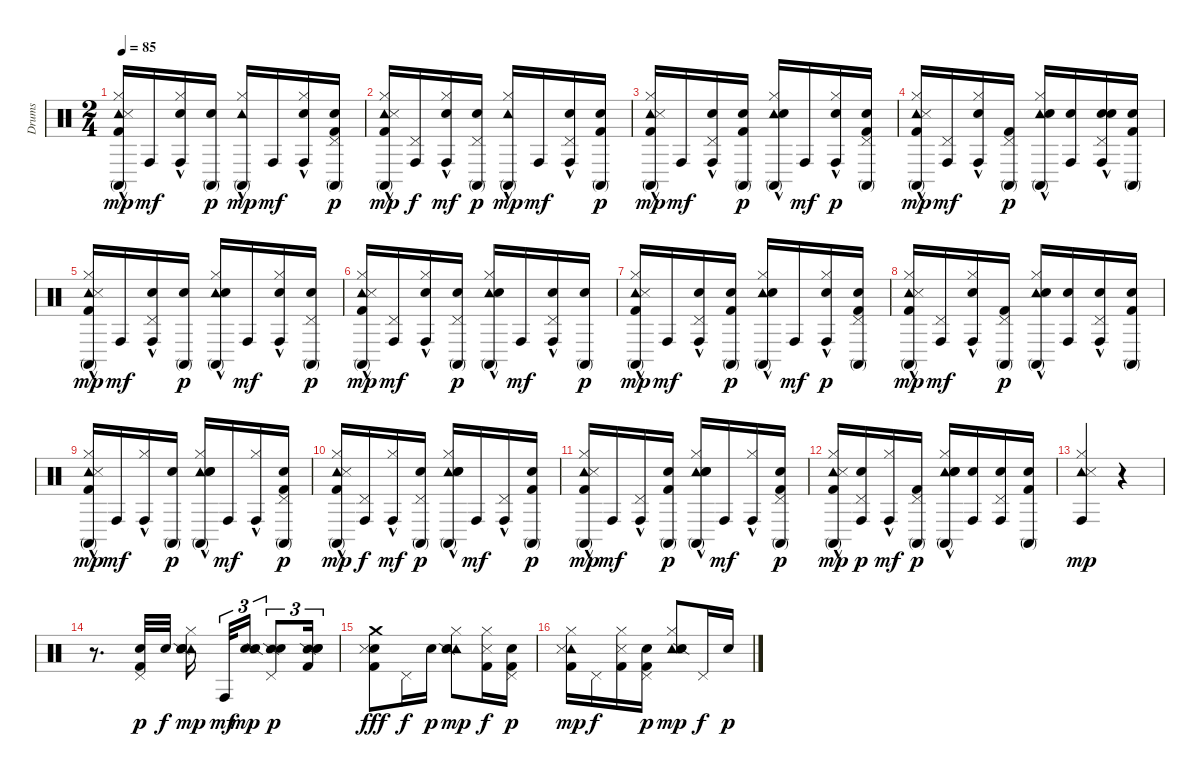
\track ("Drums" "Drums") {instrument percussion}
\staff {score}
\articulation defaults
\ts (2 4)
\tempo 85
\clef neutral
\ks c
("Conga high (mute)"{hac} "Tambourine (hit)" "Metronome (hit)" "Kick (hit) 2" "Hi-Hat (closed)").16{dy mp} "Conga high (hit)".16{dy mf} ("Conga high (hit)"{hac} "Hi-Hat (closed)" "Snare (hit) 2").16 ("Conga high (mute)" "Electric Snare (hit)").16{dy p} ("Conga high (mute)"{hac} "Tambourine (hit)" "Hi-Hat (closed)").16{dy mp} "Conga high (hit)".16{dy mf} ("Conga high (hit)"{hac} "Snare (hit) 2" "Hi-Hat (closed)").16 ("Conga high (mute)" "Kick (hit) 2" "Electric Snare (hit)" "Pedal Hi-Hat (hit)").16{dy p} |
("Conga high (mute)"{hac} "Tambourine (hit)" "Metronome (hit)" "Kick (hit) 2" "Hi-Hat (closed)").16{dy mp} ("Conga high (hit)" "Pedal Hi-Hat (hit)").16{dy f} ("Conga high (hit)"{hac} "Hi-Hat (closed)" "Snare (hit) 2").16{dy mf} ("Conga high (mute)" "Electric Snare (hit)" "Pedal Hi-Hat (hit)").16{dy p} ("Conga high (mute)"{hac} "Tambourine (hit)" "Hi-Hat (closed)").16{dy mp} "Conga high (hit)".16{dy mf} ("Conga high (hit)"{hac} "Snare (hit) 2" "Pedal Hi-Hat (hit)").16 ("Conga high (mute)" "Kick (hit) 2" "Electric Snare (hit)").16{dy p} |
("Conga high (mute)"{hac} "Tambourine (hit)" "Metronome (hit)" "Kick (hit) 2"{hac} "Hi-Hat (closed)").16{dy mp} "Conga high (hit)".16{dy mf} ("Conga high (hit)"{hac} "Pedal Hi-Hat (hit)" "Snare (hit) 2").16 ("Conga high (mute)" "Electric Snare (hit)" "Kick (hit) 2").16{dy p} ("Conga high (mute)"{hac} "Tambourine (hit)" "Metronome (bell)" "Hi-Hat (closed)").16 "Conga high (hit)".16{dy mf} ("Conga high (hit)"{hac} "Hi-Hat (closed)" "Snare (hit) 2").16{dy p} ("Conga high (mute)" "Electric Snare (hit)" "Kick (hit) 2" "Pedal Hi-Hat (hit)").16 |
("Conga high (mute)"{hac} "Tambourine (hit)" "Metronome (hit)" "Kick (hit) 2"{hac} "Hi-Hat (closed)").16{dy mp} ("Conga high (hit)" "Pedal Hi-Hat (hit)").16{dy mf} ("Conga high (hit)"{hac} "Hi-Hat (closed)" "Snare (hit) 2").16 ("Conga high (mute)" "Kick (hit) 2" "Pedal Hi-Hat (hit)").16{dy p} ("Conga high (mute)"{hac} "Tambourine (hit)" "Metronome (bell)" "Hi-Hat (closed)").16 ("Conga high (hit)" "Electric Snare (hit)").16 ("Conga high (hit)"{hac} "Snare (hit) 2" "Electric Snare (hit)" "Pedal Hi-Hat (hit)").16 ("Conga high (mute)" "Kick (hit) 2" "Electric Snare (hit)").16 |
("Conga high (mute)"{hac} "Tambourine (hit)" "Metronome (hit)" "Kick (hit) 2" "Hi-Hat (closed)").16{dy mp} "Conga high (hit)".16{dy mf} ("Conga high (hit)"{hac} "Pedal Hi-Hat (hit)" "Snare (hit) 2").16 ("Conga high (mute)" "Electric Snare (hit)").16{dy p} ("Conga high (mute)"{hac} "Tambourine (hit)" "Hi-Hat (closed)" "Metronome (bell)").16 "Conga high (hit)".16{dy mf} ("Conga high (hit)"{hac} "Snare (hit) 2" "Hi-Hat (closed)").16 ("Conga high (mute)" "Electric Snare (hit)" "Pedal Hi-Hat (hit)").16{dy p} |
("Conga high (mute)"{hac} "Tambourine (hit)" "Metronome (hit)" "Kick (hit) 2" "Hi-Hat (closed)").16{dy mp} ("Conga high (hit)" "Pedal Hi-Hat (hit)").16{dy mf} ("Conga high (hit)"{hac} "Hi-Hat (closed)" "Snare (hit) 2").16 ("Conga high (mute)" "Electric Snare (hit)" "Pedal Hi-Hat (hit)").16{dy p} ("Conga high (mute)"{hac} "Tambourine (hit)" "Metronome (bell)" "Hi-Hat (closed)").16 "Conga high (hit)".16{dy mf} ("Conga high (hit)"{hac} "Snare (hit) 2" "Pedal Hi-Hat (hit)").16 ("Conga high (mute)" "Electric Snare (hit)").16{dy p} |
("Conga high (mute)"{hac} "Tambourine (hit)" "Metronome (hit)" "Kick (hit) 2" "Hi-Hat (closed)").16{dy mp} "Conga high (hit)".16{dy mf} ("Conga high (hit)"{hac} "Pedal Hi-Hat (hit)" "Snare (hit) 2").16 ("Conga high (mute)" "Electric Snare (hit)" "Kick (hit) 2").16{dy p} ("Conga high (mute)"{hac} "Tambourine (hit)" "Metronome (bell)" "Hi-Hat (closed)").16 "Conga high (hit)".16{dy mf} ("Conga high (hit)"{hac} "Hi-Hat (closed)" "Snare (hit) 2").16{dy p} ("Conga high (mute)" "Electric Snare (hit)" "Kick (hit) 2" "Pedal Hi-Hat (hit)").16 |
("Conga high (mute)"{hac} "Tambourine (hit)" "Metronome (hit)" "Kick (hit) 2"{hac} "Hi-Hat (closed)").16{dy mp} ("Conga high (hit)" "Pedal Hi-Hat (hit)").16{dy mf} ("Conga high (hit)"{hac} "Hi-Hat (closed)" "Snare (hit) 2").16 ("Conga high (mute)" "Kick (hit) 2" "Pedal Hi-Hat (hit)").16{dy p} ("Conga high (mute)"{hac} "Tambourine (hit)" "Metronome (bell)" "Hi-Hat (closed)").16 ("Conga high (hit)" "Electric Snare (hit)").16 ("Conga high (hit)"{hac} "Snare (hit) 2" "Pedal Hi-Hat (hit)").16 ("Conga high (mute)" "Kick (hit) 2" "Electric Snare (hit)").16 |
("Conga high (mute)"{hac} "Tambourine (hit)" "Metronome (hit)" "Kick (hit) 2" "Hi-Hat (closed)").16{dy mp} "Conga high (hit)".16{dy mf} ("Conga high (hit)"{hac} "Hi-Hat (closed)").16 ("Conga high (mute)" "Electric Snare (hit)").16{dy p} ("Conga high (mute)"{hac} "Tambourine (hit)" "Snare (hit) 2" "Hi-Hat (closed)" "Metronome (bell)").16 "Conga high (hit)".16{dy mf} ("Conga high (hit)"{hac} "Hi-Hat (closed)").16 ("Conga high (mute)" "Kick (hit) 2" "Electric Snare (hit)" "Pedal Hi-Hat (hit)").16{dy p} |
("Conga high (mute)"{hac} "Tambourine (hit)" "Metronome (hit)" "Kick (hit) 2" "Hi-Hat (closed)").16{dy mp} ("Conga high (hit)" "Pedal Hi-Hat (hit)").16{dy f} ("Conga high (hit)"{hac} "Hi-Hat (closed)").16{dy mf} ("Conga high (mute)" "Electric Snare (hit)" "Pedal Hi-Hat (hit)").16{dy p} ("Conga high (mute)"{hac} "Tambourine (hit)" "Metronome (bell)" "Snare (hit) 2" "Hi-Hat (closed)").16 "Conga high (hit)".16{dy mf} ("Conga high (hit)"{hac} "Pedal Hi-Hat (hit)").16 ("Conga high (mute)" "Kick (hit) 2" "Electric Snare (hit)").16{dy p} |
("Conga high (mute)"{hac} "Tambourine (hit)" "Metronome (hit)" "Kick (hit) 2"{hac} "Hi-Hat (closed)").16{dy mp} "Conga high (hit)".16{dy mf} ("Conga high (hit)"{hac} "Pedal Hi-Hat (hit)").16 ("Conga high (mute)" "Electric Snare (hit)" "Kick (hit) 2").16{dy p} ("Conga high (mute)"{hac} "Tambourine (hit)" "Snare (hit) 2" "Metronome (bell)" "Hi-Hat (closed)").16 "Conga high (hit)".16{dy mf} ("Conga high (hit)"{hac} "Hi-Hat (closed)").16 ("Conga high (mute)" "Electric Snare (hit)" "Kick (hit) 2" "Pedal Hi-Hat (hit)").16{dy p} |
("Conga high (mute)"{hac} "Tambourine (hit)" "Metronome (hit)" "Kick (hit) 2"{hac} "Hi-Hat (closed)").16{dy mp} ("Conga high (hit)" "Snare (hit) 2" "Pedal Hi-Hat (hit)").16{dy p} ("Conga high (hit)"{hac} "Hi-Hat (closed)").16{dy mf} ("Conga high (mute)" "Kick (hit) 2" "Pedal Hi-Hat (hit)").16{dy p} ("Conga high (mute)"{hac} "Tambourine (hit)" "Snare (hit) 2" "Metronome (bell)" "Hi-Hat (closed)").16 ("Conga high (hit)" "Electric Snare (hit)").16 ("Conga high (hit)" "Electric Snare (hit)" "Pedal Hi-Hat (hit)").16 ("Conga high (mute)" "Kick (hit) 2" "Electric Snare (hit)").16 |
("Conga high (hit)" "Tambourine (hit)" "Metronome (hit)" "Hi-Hat (closed)").4{dy mp} r.4 |
r.8{d} ("Snare (hit) 2" "Kick (hit) 2" "Pedal Hi-Hat (hit)").32{dy p} "Electric Snare (hit)".32{dy f} ("Tambourine (hit)" "Snare (hit) 2" "Snare (side stick) 2" "Hi-Hat (closed)" "Electric Snare (hit)").16{dy mp} "Conga high (hit)".32{tu (3 2) dy mf} ("Snare (hit) 2" "Electric Snare (hit)" "Snare (side stick) 2").16{tu (3 2) dy mp} ("Snare (side stick) 2" "Electric Snare (hit)" "Pedal Hi-Hat (hit)").8{tu (3 2) dy p} ("Snare (side stick) 2" "Snare (hit) 2" "Kick (hit) 2" "Electric Snare (hit)").16{tu (3 2)} |
("Snare (hit)" "Crash medium (hit)" "Metronome (hit)" "Kick (hit) 2").8{dy fff} "Pedal Hi-Hat (hit)".16{dy f} "Electric Snare (hit)".16{dy p} ("Tambourine (hit)" "Snare (hit) 2" "Hi-Hat (closed)" "Snare (side stick) 2").8{dy mp} ("Metronome (hit)" "Kick (hit) 2" "Hi-Hat (closed)").16{dy f} ("Kick (hit) 2" "Electric Snare (hit)" "Pedal Hi-Hat (hit)").16{dy p} |
("Tambourine (hit)" "Metronome (hit)" "Kick (hit) 2" "Hi-Hat (closed)").16{dy mp} "Pedal Hi-Hat (hit)".16{dy f} ("Metronome (hit)" "Kick (hit) 2" "Hi-Hat (closed)").16 ("Kick (hit) 2" "Electric Snare (hit)" "Pedal Hi-Hat (hit)").16{dy p} ("Tambourine (hit)" "Snare (side stick) 2" "Snare (hit) 2" "Hi-Hat (closed)").8{dy mp} "Pedal Hi-Hat (hit)".16{dy f} "Electric Snare (hit)".16{dy p}
